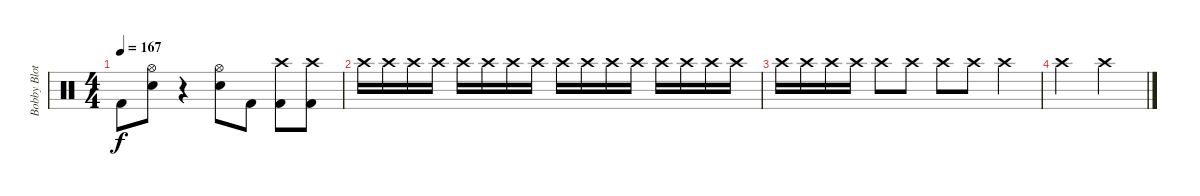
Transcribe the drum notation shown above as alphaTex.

\track ("Bobby Blotzer" "Bobby Blot") {instrument percussion}
\staff {score}
\articulation defaults
\ts (4 4)
\tempo 167
\clef neutral
\ks c "Kick (hit) 2".8{dy f}
("Hi-Hat (open)" "Electric Snare (hit)").8 r.4 ("Hi-Hat (open)" "Electric Snare (hit)").8 "Kick (hit) 2".8 ("Crash high (hit)" "Kick (hit) 2").8 ("Crash high (hit)" "Kick (hit) 2").8 |
"Crash high (hit)".16 "Crash high (hit)".16 "Crash high (hit)".16 "Crash high (hit)".16 "Crash high (hit)".16 "Crash high (hit)".16 "Crash high (hit)".16 "Crash high (hit)".16 "Crash high (hit)".16 "Crash high (hit)".16 "Crash high (hit)".16 "Crash high (hit)".16 "Crash high (hit)".16 "Crash high (hit)".16 "Crash high (hit)".16 "Crash high (hit)".16 |
"Crash high (hit)".16 "Crash high (hit)".16 "Crash high (hit)".16 "Crash high (hit)".16 "Crash high (hit)".8 "Crash high (hit)".8 "Crash high (hit)".8 "Crash high (hit)".8 "Crash high (hit)".4 |
"Crash high (hit)".2 "Crash high (hit)".2
